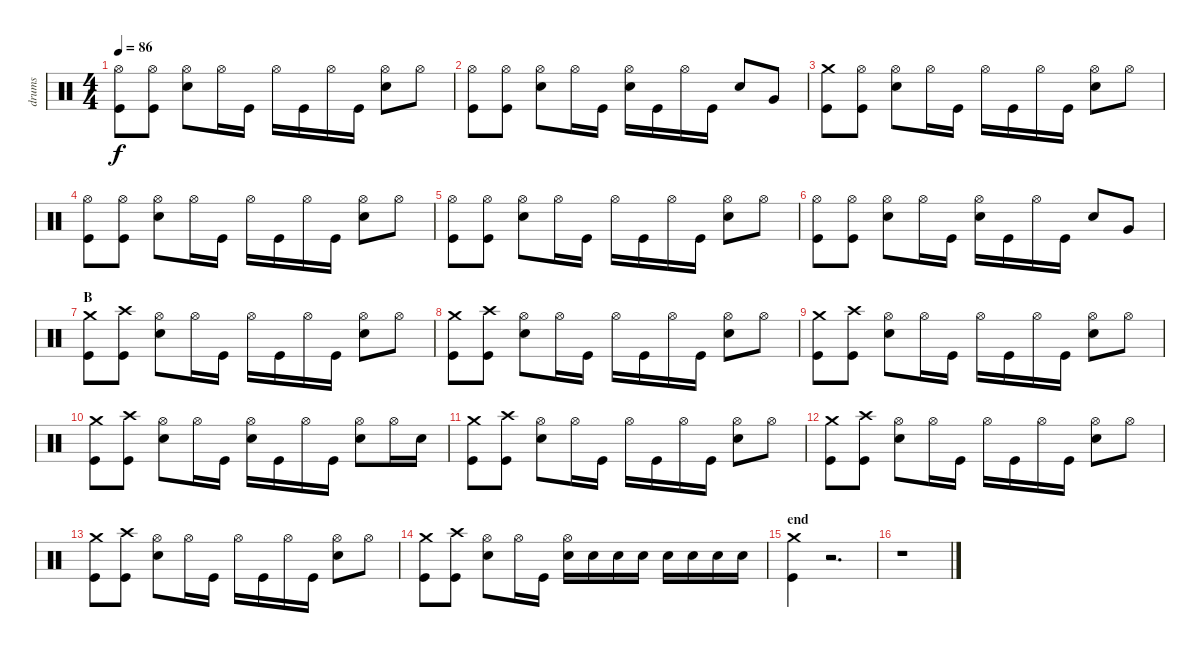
\track ("drums" "drums") {instrument percussion}
\staff {score}
\articulation defaults
\ts (4 4)
\tempo 86
\clef neutral
\ks c
("Hi-Hat (open)" "Kick (hit)").8{dy f} ("Hi-Hat (open)" "Kick (hit)").8 ("Hi-Hat (open)" "Electric Snare (hit)").8 "Hi-Hat (open)".16 "Kick (hit)".16 "Hi-Hat (open)".16 "Kick (hit)".16 "Hi-Hat (open)".16 "Kick (hit)".16 ("Hi-Hat (open)" "Electric Snare (hit)").8 "Hi-Hat (open)".8 |
("Hi-Hat (open)" "Kick (hit)").8 ("Hi-Hat (open)" "Kick (hit)").8 ("Hi-Hat (open)" "Electric Snare (hit)").8 "Hi-Hat (open)".16 "Kick (hit)".16 ("Hi-Hat (open)" "Electric Snare (hit)").16 "Kick (hit)".16 "Hi-Hat (open)".16 "Kick (hit)".16 "Electric Snare (hit)".8 "Very Low Tom (hit)".8 |
("Crash medium (hit)" "Kick (hit)").8 ("Hi-Hat (open)" "Kick (hit)").8 ("Hi-Hat (open)" "Electric Snare (hit)").8 "Hi-Hat (open)".16 "Kick (hit)".16 "Hi-Hat (open)".16 "Kick (hit)".16 "Hi-Hat (open)".16 "Kick (hit)".16 ("Hi-Hat (open)" "Electric Snare (hit)").8 "Hi-Hat (open)".8 |
("Hi-Hat (open)" "Kick (hit)").8 ("Hi-Hat (open)" "Kick (hit)").8 ("Hi-Hat (open)" "Electric Snare (hit)").8 "Hi-Hat (open)".16 "Kick (hit)".16 "Hi-Hat (open)".16 "Kick (hit)".16 "Hi-Hat (open)".16 "Kick (hit)".16 ("Hi-Hat (open)" "Electric Snare (hit)").8 "Hi-Hat (open)".8 |
("Hi-Hat (open)" "Kick (hit)").8 ("Hi-Hat (open)" "Kick (hit)").8 ("Hi-Hat (open)" "Electric Snare (hit)").8 "Hi-Hat (open)".16 "Kick (hit)".16 "Hi-Hat (open)".16 "Kick (hit)".16 "Hi-Hat (open)".16 "Kick (hit)".16 ("Hi-Hat (open)" "Electric Snare (hit)").8 "Hi-Hat (open)".8 |
("Hi-Hat (open)" "Kick (hit)").8 ("Hi-Hat (open)" "Kick (hit)").8 ("Hi-Hat (open)" "Electric Snare (hit)").8 "Hi-Hat (open)".16 "Kick (hit)".16 ("Hi-Hat (open)" "Electric Snare (hit)").16 "Kick (hit)".16 "Hi-Hat (open)".16 "Kick (hit)".16 "Electric Snare (hit)".8 "Very Low Tom (hit)".8 |
\section ("" "B")
("Crash medium (hit)" "Kick (hit)").8 ("Crash high (hit)" "Kick (hit)").8 ("Hi-Hat (open)" "Electric Snare (hit)").8 "Hi-Hat (open)".16 "Kick (hit)".16 "Hi-Hat (open)".16 "Kick (hit)".16 "Hi-Hat (open)".16 "Kick (hit)".16 ("Hi-Hat (open)" "Electric Snare (hit)").8 "Hi-Hat (open)".8 |
("Crash medium (hit)" "Kick (hit)").8 ("Crash high (hit)" "Kick (hit)").8 ("Hi-Hat (open)" "Electric Snare (hit)").8 "Hi-Hat (open)".16 "Kick (hit)".16 "Hi-Hat (open)".16 "Kick (hit)".16 "Hi-Hat (open)".16 "Kick (hit)".16 ("Hi-Hat (open)" "Electric Snare (hit)").8 "Hi-Hat (open)".8 |
("Crash medium (hit)" "Kick (hit)").8 ("Crash high (hit)" "Kick (hit)").8 ("Hi-Hat (open)" "Electric Snare (hit)").8 "Hi-Hat (open)".16 "Kick (hit)".16 "Hi-Hat (open)".16 "Kick (hit)".16 "Hi-Hat (open)".16 "Kick (hit)".16 ("Hi-Hat (open)" "Electric Snare (hit)").8 "Hi-Hat (open)".8 |
("Crash medium (hit)" "Kick (hit)").8 ("Crash high (hit)" "Kick (hit)").8 ("Hi-Hat (open)" "Electric Snare (hit)").8 "Hi-Hat (open)".16 "Kick (hit)".16 ("Hi-Hat (open)" "Electric Snare (hit)").16 "Kick (hit)".16 "Hi-Hat (open)".16 "Kick (hit)".16 ("Hi-Hat (open)" "Electric Snare (hit)").8 "Hi-Hat (open)".16 "Electric Snare (hit)".16 |
("Crash medium (hit)" "Kick (hit)").8 ("Crash high (hit)" "Kick (hit)").8 ("Hi-Hat (open)" "Electric Snare (hit)").8 "Hi-Hat (open)".16 "Kick (hit)".16 "Hi-Hat (open)".16 "Kick (hit)".16 "Hi-Hat (open)".16 "Kick (hit)".16 ("Hi-Hat (open)" "Electric Snare (hit)").8 "Hi-Hat (open)".8 |
("Crash medium (hit)" "Kick (hit)").8 ("Crash high (hit)" "Kick (hit)").8 ("Hi-Hat (open)" "Electric Snare (hit)").8 "Hi-Hat (open)".16 "Kick (hit)".16 "Hi-Hat (open)".16 "Kick (hit)".16 "Hi-Hat (open)".16 "Kick (hit)".16 ("Hi-Hat (open)" "Electric Snare (hit)").8 "Hi-Hat (open)".8 |
("Crash medium (hit)" "Kick (hit)").8 ("Crash high (hit)" "Kick (hit)").8 ("Hi-Hat (open)" "Electric Snare (hit)").8 "Hi-Hat (open)".16 "Kick (hit)".16 "Hi-Hat (open)".16 "Kick (hit)".16 "Hi-Hat (open)".16 "Kick (hit)".16 ("Hi-Hat (open)" "Electric Snare (hit)").8 "Hi-Hat (open)".8 |
("Crash medium (hit)" "Kick (hit)").8 ("Crash high (hit)" "Kick (hit)").8 ("Hi-Hat (open)" "Electric Snare (hit)").8 "Hi-Hat (open)".16 "Kick (hit)".16 ("Hi-Hat (open)" "Electric Snare (hit)").16 "Electric Snare (hit)".16 "Electric Snare (hit)".16 "Electric Snare (hit)".16 "Electric Snare (hit)".16 "Electric Snare (hit)".16 "Electric Snare (hit)".16 "Electric Snare (hit)".16 |
\section ("" "end")
("Crash medium (hit)" "Kick (hit)").4 r.2{d} |
r.1
